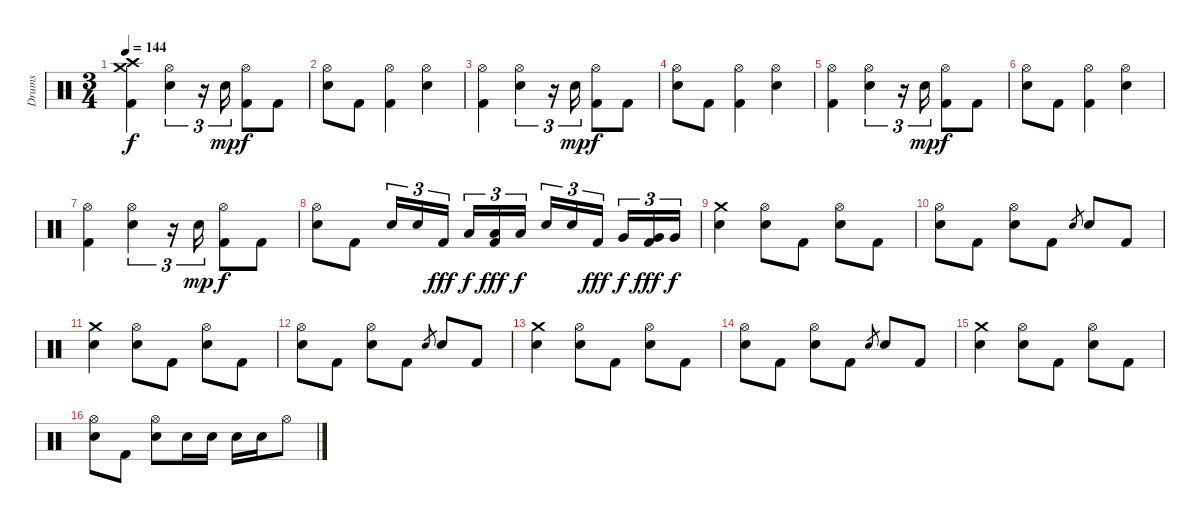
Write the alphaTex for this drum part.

\track ("Drums" "Drums") {instrument percussion}
\staff {score}
\articulation defaults
\ts (3 4)
\tempo 144
\clef neutral
\ks c
("Crash high (hit)" "Crash medium (hit)" "Kick (hit) 2").4{dy f} ("Hi-Hat (open)" "Snare (hit) 2").4{tu (3 2)} r.16{tu (3 2)} "Snare (hit) 2".16{tu (3 2) dy mp} ("Hi-Hat (open)" "Kick (hit) 2").8{dy f} "Kick (hit) 2".8 |
("Hi-Hat (open)" "Snare (hit) 2").8 "Kick (hit) 2".8 ("Hi-Hat (open)" "Kick (hit) 2").4 ("Hi-Hat (open)" "Snare (hit) 2").4 |
("Hi-Hat (open)" "Kick (hit) 2").4 ("Hi-Hat (open)" "Snare (hit) 2").4{tu (3 2)} r.16{tu (3 2)} "Snare (hit) 2".16{tu (3 2) dy mp} ("Hi-Hat (open)" "Kick (hit) 2").8{dy f} "Kick (hit) 2".8 |
("Hi-Hat (open)" "Snare (hit) 2").8 "Kick (hit) 2".8 ("Hi-Hat (open)" "Kick (hit) 2").4 ("Hi-Hat (open)" "Snare (hit) 2").4 |
("Hi-Hat (open)" "Kick (hit) 2").4 ("Hi-Hat (open)" "Snare (hit) 2").4{tu (3 2)} r.16{tu (3 2)} "Snare (hit) 2".16{tu (3 2) dy mp} ("Hi-Hat (open)" "Kick (hit) 2").8{dy f} "Kick (hit) 2".8 |
("Hi-Hat (open)" "Snare (hit) 2").8 "Kick (hit) 2".8 ("Hi-Hat (open)" "Kick (hit) 2").4 ("Hi-Hat (open)" "Snare (hit) 2").4 |
("Hi-Hat (open)" "Kick (hit) 2").4 ("Hi-Hat (open)" "Snare (hit) 2").4{tu (3 2)} r.16{tu (3 2)} "Snare (hit) 2".16{tu (3 2) dy mp} ("Hi-Hat (open)" "Kick (hit) 2").8{dy f} "Kick (hit) 2".8 |
("Hi-Hat (open)" "Snare (hit) 2").8 "Kick (hit) 2".8 "Snare (hit) 2".16{tu (3 2)} "Snare (hit) 2".16{tu (3 2)} "Kick (hit) 2".16{tu (3 2) dy fff} "Low Tom (hit)".16{tu (3 2) dy f} ("Low Tom (hit)" "Kick (hit) 2").16{tu (3 2) dy fff} "Low Tom (hit)".16{tu (3 2) dy f} "Snare (hit) 2".16{tu (3 2)} "Snare (hit) 2".16{tu (3 2)} "Kick (hit) 2".16{tu (3 2) dy fff} "Very Low Tom (hit)".16{tu (3 2) dy f} ("Very Low Tom (hit)" "Kick (hit) 2").16{tu (3 2) dy fff} "Very Low Tom (hit)".16{tu (3 2) dy f} |
("Crash medium (hit)" "Snare (hit) 2").4 ("Hi-Hat (open)" "Snare (hit) 2").8 "Kick (hit) 2".8 ("Hi-Hat (open)" "Snare (hit) 2").8 "Kick (hit) 2".8 |
("Hi-Hat (open)" "Snare (hit) 2").8 "Kick (hit) 2".8 ("Hi-Hat (open)" "Snare (hit) 2").8 "Kick (hit) 2".8 "Snare (hit) 2".8{gr} "Snare (hit) 2".8 "Kick (hit) 2".8 |
("Crash medium (hit)" "Snare (hit) 2").4 ("Hi-Hat (open)" "Snare (hit) 2").8 "Kick (hit) 2".8 ("Hi-Hat (open)" "Snare (hit) 2").8 "Kick (hit) 2".8 |
("Hi-Hat (open)" "Snare (hit) 2").8 "Kick (hit) 2".8 ("Hi-Hat (open)" "Snare (hit) 2").8 "Kick (hit) 2".8 "Snare (hit) 2".8{gr} "Snare (hit) 2".8 "Kick (hit) 2".8 |
("Crash medium (hit)" "Snare (hit) 2").4 ("Hi-Hat (open)" "Snare (hit) 2").8 "Kick (hit) 2".8 ("Hi-Hat (open)" "Snare (hit) 2").8 "Kick (hit) 2".8 |
("Hi-Hat (open)" "Snare (hit) 2").8 "Kick (hit) 2".8 ("Hi-Hat (open)" "Snare (hit) 2").8 "Kick (hit) 2".8 "Snare (hit) 2".8{gr} "Snare (hit) 2".8 "Kick (hit) 2".8 |
("Crash medium (hit)" "Snare (hit) 2").4 ("Hi-Hat (open)" "Snare (hit) 2").8 "Kick (hit) 2".8 ("Hi-Hat (open)" "Snare (hit) 2").8 "Kick (hit) 2".8 |
("Hi-Hat (open)" "Snare (hit) 2").8 "Kick (hit) 2".8 ("Hi-Hat (open)" "Snare (hit) 2").8 "Snare (hit) 2".16 "Snare (hit) 2".16 "Snare (hit) 2".16 "Snare (hit) 2".16 "Hi-Hat (open)".8
